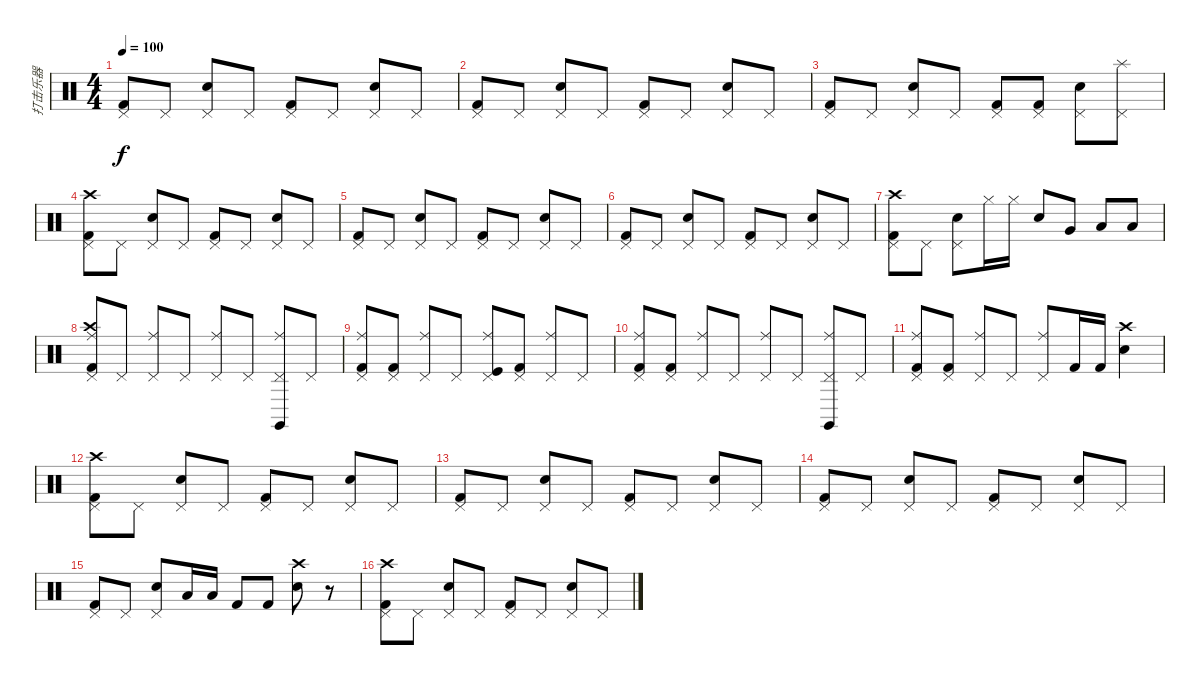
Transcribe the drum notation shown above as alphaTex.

\track ("打击乐器" "打击乐器") {instrument percussion}
\staff {score}
\articulation defaults
\ts (4 4)
\tempo 100
\clef neutral
\ks c
("Pedal Hi-Hat (hit)" "Kick (hit) 2").8{dy f} "Pedal Hi-Hat (hit)".8 ("Pedal Hi-Hat (hit)" "Snare (hit) 2").8 "Pedal Hi-Hat (hit)".8 ("Pedal Hi-Hat (hit)" "Kick (hit) 2").8 "Pedal Hi-Hat (hit)".8 ("Pedal Hi-Hat (hit)" "Snare (hit) 2").8 "Pedal Hi-Hat (hit)".8 |
("Pedal Hi-Hat (hit)" "Kick (hit) 2").8 "Pedal Hi-Hat (hit)".8 ("Pedal Hi-Hat (hit)" "Snare (hit) 2").8 "Pedal Hi-Hat (hit)".8 ("Pedal Hi-Hat (hit)" "Kick (hit) 2").8 "Pedal Hi-Hat (hit)".8 ("Pedal Hi-Hat (hit)" "Snare (hit) 2").8 "Pedal Hi-Hat (hit)".8 |
("Pedal Hi-Hat (hit)" "Kick (hit) 2").8 "Pedal Hi-Hat (hit)".8 ("Pedal Hi-Hat (hit)" "Snare (hit) 2").8 "Pedal Hi-Hat (hit)".8 ("Pedal Hi-Hat (hit)" "Kick (hit) 2").8 ("Pedal Hi-Hat (hit)" "Kick (hit) 2").8 ("Pedal Hi-Hat (hit)" "Snare (hit) 2").8 ("Pedal Hi-Hat (hit)" "Splash (hit)").8 |
("Pedal Hi-Hat (hit)" "Kick (hit) 2" "Crash high (hit)").8 "Pedal Hi-Hat (hit)".8 ("Pedal Hi-Hat (hit)" "Snare (hit) 2").8 "Pedal Hi-Hat (hit)".8 ("Pedal Hi-Hat (hit)" "Kick (hit) 2").8 "Pedal Hi-Hat (hit)".8 ("Pedal Hi-Hat (hit)" "Snare (hit) 2").8 "Pedal Hi-Hat (hit)".8 |
("Pedal Hi-Hat (hit)" "Kick (hit) 2").8 "Pedal Hi-Hat (hit)".8 ("Pedal Hi-Hat (hit)" "Snare (hit) 2").8 "Pedal Hi-Hat (hit)".8 ("Pedal Hi-Hat (hit)" "Kick (hit) 2").8 "Pedal Hi-Hat (hit)".8 ("Pedal Hi-Hat (hit)" "Snare (hit) 2").8 "Pedal Hi-Hat (hit)".8 |
("Pedal Hi-Hat (hit)" "Kick (hit) 2").8 "Pedal Hi-Hat (hit)".8 ("Pedal Hi-Hat (hit)" "Snare (hit) 2").8 "Pedal Hi-Hat (hit)".8 ("Pedal Hi-Hat (hit)" "Kick (hit) 2").8 "Pedal Hi-Hat (hit)".8 ("Pedal Hi-Hat (hit)" "Snare (hit) 2").8 "Pedal Hi-Hat (hit)".8 |
("Pedal Hi-Hat (hit)" "Kick (hit) 2" "Crash high (hit)").8 "Pedal Hi-Hat (hit)".8 ("Pedal Hi-Hat (hit)" "Snare (hit) 2").8 "Hi-Hat (closed)".16 "Hi-Hat (closed)".16 "Snare (hit) 2".8 "Very Low Tom (hit)".8 "Low Floor Tom (hit)".8 "Low Floor Tom (hit)".8 |
("Pedal Hi-Hat (hit)" "Crash high (hit)" "Kick (hit) 2" "Ride (middle)").8 "Pedal Hi-Hat (hit)".8 ("Pedal Hi-Hat (hit)" "Ride (middle)").8 "Pedal Hi-Hat (hit)".8 ("Pedal Hi-Hat (hit)" "Ride (middle)").8 "Pedal Hi-Hat (hit)".8 ("Pedal Hi-Hat (hit)" "Claves (hit)" "Ride (middle)").8 "Pedal Hi-Hat (hit)".8 |
("Pedal Hi-Hat (hit)" "Kick (hit) 2" "Ride (middle)").8 ("Pedal Hi-Hat (hit)" "Kick (hit) 2").8 ("Pedal Hi-Hat (hit)" "Ride (middle)").8 "Pedal Hi-Hat (hit)".8 ("Pedal Hi-Hat (hit)" "Kick (hit)" "Ride (middle)").8 ("Pedal Hi-Hat (hit)" "Kick (hit) 2").8 ("Pedal Hi-Hat (hit)" "Ride (middle)").8 "Pedal Hi-Hat (hit)".8 |
("Pedal Hi-Hat (hit)" "Kick (hit) 2" "Ride (middle)").8 ("Pedal Hi-Hat (hit)" "Kick (hit) 2").8 ("Pedal Hi-Hat (hit)" "Ride (middle)").8 "Pedal Hi-Hat (hit)".8 ("Pedal Hi-Hat (hit)" "Ride (middle)").8 "Pedal Hi-Hat (hit)".8 ("Pedal Hi-Hat (hit)" "Claves (hit)" "Ride (middle)").8 "Pedal Hi-Hat (hit)".8 |
("Pedal Hi-Hat (hit)" "Kick (hit) 2" "Ride (middle)").8 ("Pedal Hi-Hat (hit)" "Kick (hit) 2").8 ("Pedal Hi-Hat (hit)" "Ride (middle)").8 "Pedal Hi-Hat (hit)".8 ("Pedal Hi-Hat (hit)" "Ride (middle)").8 "Kick (hit) 2".16 "Kick (hit) 2".16 ("Snare (hit) 2" "Crash high (hit)").4 |
("Pedal Hi-Hat (hit)" "Kick (hit) 2" "Crash high (hit)").8 "Pedal Hi-Hat (hit)".8 ("Pedal Hi-Hat (hit)" "Snare (hit) 2").8 "Pedal Hi-Hat (hit)".8 ("Pedal Hi-Hat (hit)" "Kick (hit) 2").8 "Pedal Hi-Hat (hit)".8 ("Pedal Hi-Hat (hit)" "Snare (hit) 2").8 "Pedal Hi-Hat (hit)".8 |
("Pedal Hi-Hat (hit)" "Kick (hit) 2").8 "Pedal Hi-Hat (hit)".8 ("Pedal Hi-Hat (hit)" "Snare (hit) 2").8 "Pedal Hi-Hat (hit)".8 ("Pedal Hi-Hat (hit)" "Kick (hit) 2").8 "Pedal Hi-Hat (hit)".8 ("Pedal Hi-Hat (hit)" "Snare (hit) 2").8 "Pedal Hi-Hat (hit)".8 |
("Pedal Hi-Hat (hit)" "Kick (hit) 2").8 "Pedal Hi-Hat (hit)".8 ("Pedal Hi-Hat (hit)" "Snare (hit) 2").8 "Pedal Hi-Hat (hit)".8 ("Pedal Hi-Hat (hit)" "Kick (hit) 2").8 "Pedal Hi-Hat (hit)".8 ("Pedal Hi-Hat (hit)" "Snare (hit) 2").8 "Pedal Hi-Hat (hit)".8 |
("Pedal Hi-Hat (hit)" "Kick (hit) 2").8 "Pedal Hi-Hat (hit)".8 ("Pedal Hi-Hat (hit)" "Snare (hit) 2").8 "Low Tom (hit)".16 "Low Tom (hit)".16 "Kick (hit) 2".8 "Kick (hit) 2".8 ("Snare (hit) 2" "Crash high (hit)").8 r.8 |
("Pedal Hi-Hat (hit)" "Kick (hit) 2" "Crash high (hit)").8 "Pedal Hi-Hat (hit)".8 ("Pedal Hi-Hat (hit)" "Snare (hit) 2").8 "Pedal Hi-Hat (hit)".8 ("Pedal Hi-Hat (hit)" "Kick (hit) 2").8 "Pedal Hi-Hat (hit)".8 ("Pedal Hi-Hat (hit)" "Snare (hit) 2").8 "Pedal Hi-Hat (hit)".8
